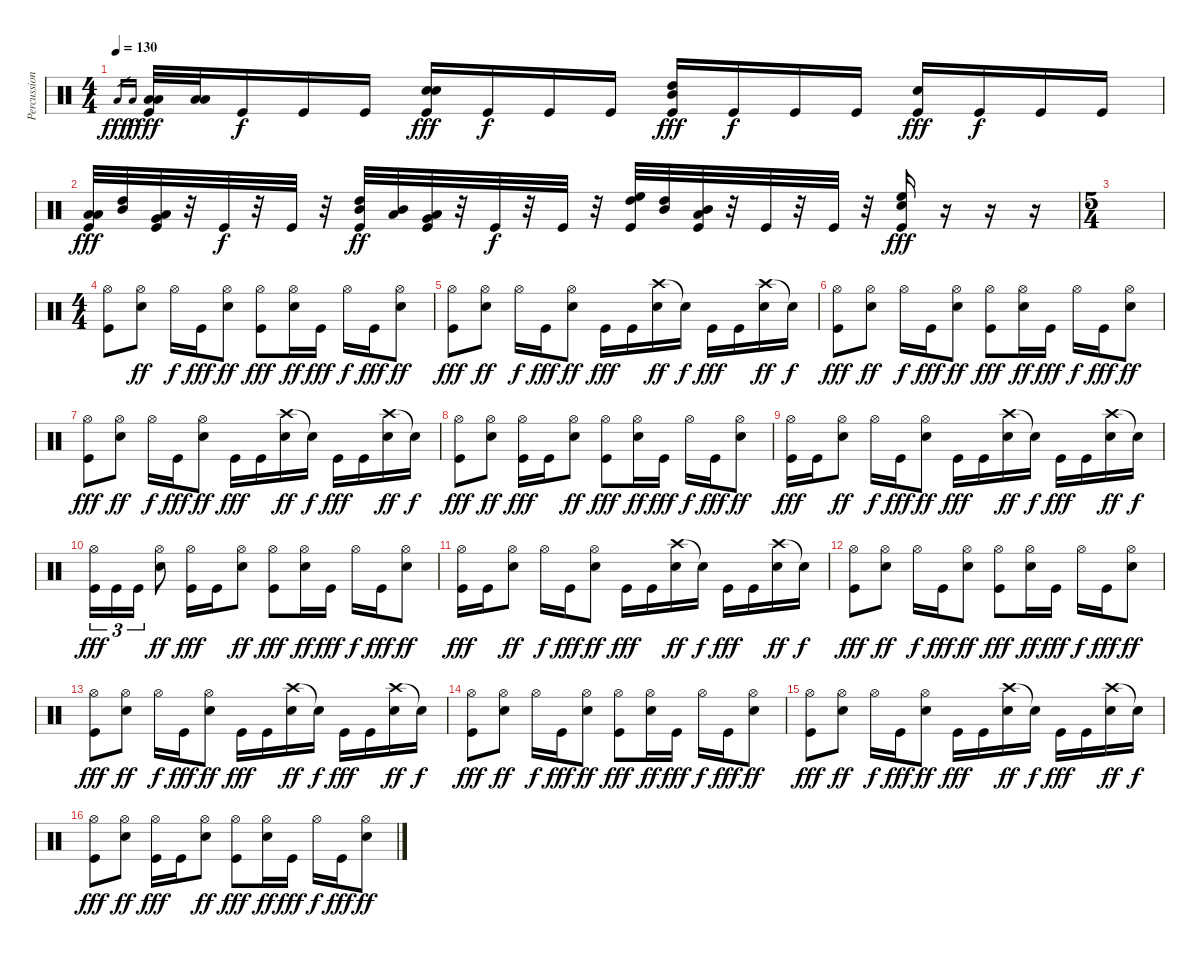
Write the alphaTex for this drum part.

\track ("Percussion" "Percussion") {instrument percussion}
\staff {score}
\articulation defaults
\ts (4 4)
\tempo 130
\clef neutral
\ks c "Low Tom (hit)".16{gr dy fff} "Low Tom (hit)".16{gr dy f}
("Low Tom (hit)" "Low Tom (hit)" "Kick (hit)").32{dy fff} ("Low Tom (hit)" "Low Tom (hit)").32 "Kick (hit)".16{dy f} "Kick (hit)".16 "Kick (hit)".16 ("Electric Snare (hit)" "Snare (hit) 2" "Kick (hit)").16{dy fff} "Kick (hit)".16{dy f} "Kick (hit)".16 "Kick (hit)".16 ("Mid Tom (hit)" "High Tom (hit)" "Kick (hit)").16{dy fff} "Kick (hit)".16{dy f} "Kick (hit)".16 "Kick (hit)".16 ("Snare (hit) 2" "Kick (hit)").16{dy fff} "Kick (hit)".16{dy f} "Kick (hit)".16 "Kick (hit)".16 |
("Low Tom (hit)" "Low Tom (hit)" "Kick (hit)").32{dy fff} ("High Tom (hit)" "Mid Tom (hit)").32 ("Very Low Tom (hit)" "Low Tom (hit)" "Kick (hit)").32 r.32 "Kick (hit)".32{dy f} r.32 "Kick (hit)".32 r.32 ("High Tom (hit)" "Mid Tom (hit)" "Kick (hit)").32{dy ff} ("Mid Tom (hit)" "Low Tom (hit)").32 ("Low Tom (hit)" "Very Low Tom (hit)" "Kick (hit)").32 r.32 "Kick (hit)".32{dy f} r.32 "Kick (hit)".32 r.32 ("High Floor Tom (hit)" "High Tom (hit)" "Kick (hit)").32 ("High Tom (hit)" "Mid Tom (hit)").32 ("Mid Tom (hit)" "Low Tom (hit)" "Kick (hit)").32 r.32 "Kick (hit)".32 r.32 "Kick (hit)".32 r.32 ("High Floor Tom (hit)" "Snare (hit) 2" "Kick (hit)").16{dy fff} r.16 r.16 r.16 |
\ts (5 4)
|
\ts (4 4)
("Hi-Hat (open)" "Kick (hit)").8 ("Hi-Hat (open)" "Snare (hit) 2").8{dy ff} "Hi-Hat (open)".16{dy f} "Kick (hit)".16{dy fff} ("Hi-Hat (open)" "Snare (hit) 2").8{dy ff} ("Hi-Hat (open)" "Kick (hit)").8{dy fff} ("Hi-Hat (open)" "Snare (hit) 2").16{dy ff} "Kick (hit)".16{dy fff} "Hi-Hat (open)".16{dy f} "Kick (hit)".16{dy fff} ("Hi-Hat (open)" "Snare (hit) 2").8{dy ff} |
("Hi-Hat (open)" "Kick (hit)").8{dy fff} ("Hi-Hat (open)" "Snare (hit) 2").8{dy ff} "Hi-Hat (open)".16{dy f} "Kick (hit)".16{dy fff} ("Hi-Hat (open)" "Snare (hit) 2").8{dy ff} "Kick (hit)".16{dy fff} "Kick (hit)".16 ("Crash high (hit)" "Snare (hit) 2").16{dy ff} "Snare (hit)"{t}.16{dy f} "Kick (hit)".16{dy fff} "Kick (hit)".16 ("Crash high (hit)" "Snare (hit) 2").16{dy ff} "Snare (hit)"{t}.16{dy f} |
("Hi-Hat (open)" "Kick (hit)").8{dy fff} ("Hi-Hat (open)" "Snare (hit) 2").8{dy ff} "Hi-Hat (open)".16{dy f} "Kick (hit)".16{dy fff} ("Hi-Hat (open)" "Snare (hit) 2").8{dy ff} ("Hi-Hat (open)" "Kick (hit)").8{dy fff} ("Hi-Hat (open)" "Snare (hit) 2").16{dy ff} "Kick (hit)".16{dy fff} "Hi-Hat (open)".16{dy f} "Kick (hit)".16{dy fff} ("Hi-Hat (open)" "Snare (hit) 2").8{dy ff} |
("Hi-Hat (open)" "Kick (hit)").8{dy fff} ("Hi-Hat (open)" "Snare (hit) 2").8{dy ff} "Hi-Hat (open)".16{dy f} "Kick (hit)".16{dy fff} ("Hi-Hat (open)" "Snare (hit) 2").8{dy ff} "Kick (hit)".16{dy fff} "Kick (hit)".16 ("Crash high (hit)" "Snare (hit) 2").16{dy ff} "Snare (hit)"{t}.16{dy f} "Kick (hit)".16{dy fff} "Kick (hit)".16 ("Crash high (hit)" "Snare (hit) 2").16{dy ff} "Snare (hit)"{t}.16{dy f} |
("Hi-Hat (open)" "Kick (hit)").8{dy fff} ("Hi-Hat (open)" "Snare (hit) 2").8{dy ff} ("Hi-Hat (open)" "Kick (hit)").16{dy fff} "Kick (hit)".16 ("Hi-Hat (open)" "Snare (hit) 2").8{dy ff} ("Hi-Hat (open)" "Kick (hit)").8{dy fff} ("Hi-Hat (open)" "Snare (hit) 2").16{dy ff} "Kick (hit)".16{dy fff} "Hi-Hat (open)".16{dy f} "Kick (hit)".16{dy fff} ("Hi-Hat (open)" "Snare (hit) 2").8{dy ff} |
("Hi-Hat (open)" "Kick (hit)").16{dy fff} "Kick (hit)".16 ("Hi-Hat (open)" "Snare (hit) 2").8{dy ff} "Hi-Hat (open)".16{dy f} "Kick (hit)".16{dy fff} ("Hi-Hat (open)" "Snare (hit) 2").8{dy ff} "Kick (hit)".16{dy fff} "Kick (hit)".16 ("Crash high (hit)" "Snare (hit) 2").16{dy ff} "Snare (hit)"{t}.16{dy f} "Kick (hit)".16{dy fff} "Kick (hit)".16 ("Crash high (hit)" "Snare (hit) 2").16{dy ff} "Snare (hit)"{t}.16{dy f} |
("Hi-Hat (open)" "Kick (hit)").16{tu (3 2) dy fff} "Kick (hit)".16{tu (3 2)} "Kick (hit)".16{tu (3 2)} ("Hi-Hat (open)" "Snare (hit) 2").8{dy ff} ("Hi-Hat (open)" "Kick (hit)").16{dy fff} "Kick (hit)".16 ("Hi-Hat (open)" "Snare (hit) 2").8{dy ff} ("Hi-Hat (open)" "Kick (hit)").8{dy fff} ("Hi-Hat (open)" "Snare (hit) 2").16{dy ff} "Kick (hit)".16{dy fff} "Hi-Hat (open)".16{dy f} "Kick (hit)".16{dy fff} ("Hi-Hat (open)" "Snare (hit) 2").8{dy ff} |
("Hi-Hat (open)" "Kick (hit)").16{dy fff} "Kick (hit)".16 ("Hi-Hat (open)" "Snare (hit) 2").8{dy ff} "Hi-Hat (open)".16{dy f} "Kick (hit)".16{dy fff} ("Hi-Hat (open)" "Snare (hit) 2").8{dy ff} "Kick (hit)".16{dy fff} "Kick (hit)".16 ("Crash high (hit)" "Snare (hit) 2").16{dy ff} "Snare (hit)"{t}.16{dy f} "Kick (hit)".16{dy fff} "Kick (hit)".16 ("Crash high (hit)" "Snare (hit) 2").16{dy ff} "Snare (hit)"{t}.16{dy f} |
("Hi-Hat (open)" "Kick (hit)").8{dy fff} ("Hi-Hat (open)" "Snare (hit) 2").8{dy ff} "Hi-Hat (open)".16{dy f} "Kick (hit)".16{dy fff} ("Hi-Hat (open)" "Snare (hit) 2").8{dy ff} ("Hi-Hat (open)" "Kick (hit)").8{dy fff} ("Hi-Hat (open)" "Snare (hit) 2").16{dy ff} "Kick (hit)".16{dy fff} "Hi-Hat (open)".16{dy f} "Kick (hit)".16{dy fff} ("Hi-Hat (open)" "Snare (hit) 2").8{dy ff} |
("Hi-Hat (open)" "Kick (hit)").8{dy fff} ("Hi-Hat (open)" "Snare (hit) 2").8{dy ff} "Hi-Hat (open)".16{dy f} "Kick (hit)".16{dy fff} ("Hi-Hat (open)" "Snare (hit) 2").8{dy ff} "Kick (hit)".16{dy fff} "Kick (hit)".16 ("Crash high (hit)" "Snare (hit) 2").16{dy ff} "Snare (hit)"{t}.16{dy f} "Kick (hit)".16{dy fff} "Kick (hit)".16 ("Crash high (hit)" "Snare (hit) 2").16{dy ff} "Snare (hit)"{t}.16{dy f} |
("Hi-Hat (open)" "Kick (hit)").8{dy fff} ("Hi-Hat (open)" "Snare (hit) 2").8{dy ff} "Hi-Hat (open)".16{dy f} "Kick (hit)".16{dy fff} ("Hi-Hat (open)" "Snare (hit) 2").8{dy ff} ("Hi-Hat (open)" "Kick (hit)").8{dy fff} ("Hi-Hat (open)" "Snare (hit) 2").16{dy ff} "Kick (hit)".16{dy fff} "Hi-Hat (open)".16{dy f} "Kick (hit)".16{dy fff} ("Hi-Hat (open)" "Snare (hit) 2").8{dy ff} |
("Hi-Hat (open)" "Kick (hit)").8{dy fff} ("Hi-Hat (open)" "Snare (hit) 2").8{dy ff} "Hi-Hat (open)".16{dy f} "Kick (hit)".16{dy fff} ("Hi-Hat (open)" "Snare (hit) 2").8{dy ff} "Kick (hit)".16{dy fff} "Kick (hit)".16 ("Crash high (hit)" "Snare (hit) 2").16{dy ff} "Snare (hit)"{t}.16{dy f} "Kick (hit)".16{dy fff} "Kick (hit)".16 ("Crash high (hit)" "Snare (hit) 2").16{dy ff} "Snare (hit)"{t}.16{dy f} |
("Hi-Hat (open)" "Kick (hit)").8{dy fff} ("Hi-Hat (open)" "Snare (hit) 2").8{dy ff} ("Hi-Hat (open)" "Kick (hit)").16{dy fff} "Kick (hit)".16 ("Hi-Hat (open)" "Snare (hit) 2").8{dy ff} ("Hi-Hat (open)" "Kick (hit)").8{dy fff} ("Hi-Hat (open)" "Snare (hit) 2").16{dy ff} "Kick (hit)".16{dy fff} "Hi-Hat (open)".16{dy f} "Kick (hit)".16{dy fff} ("Hi-Hat (open)" "Snare (hit) 2").8{dy ff}
